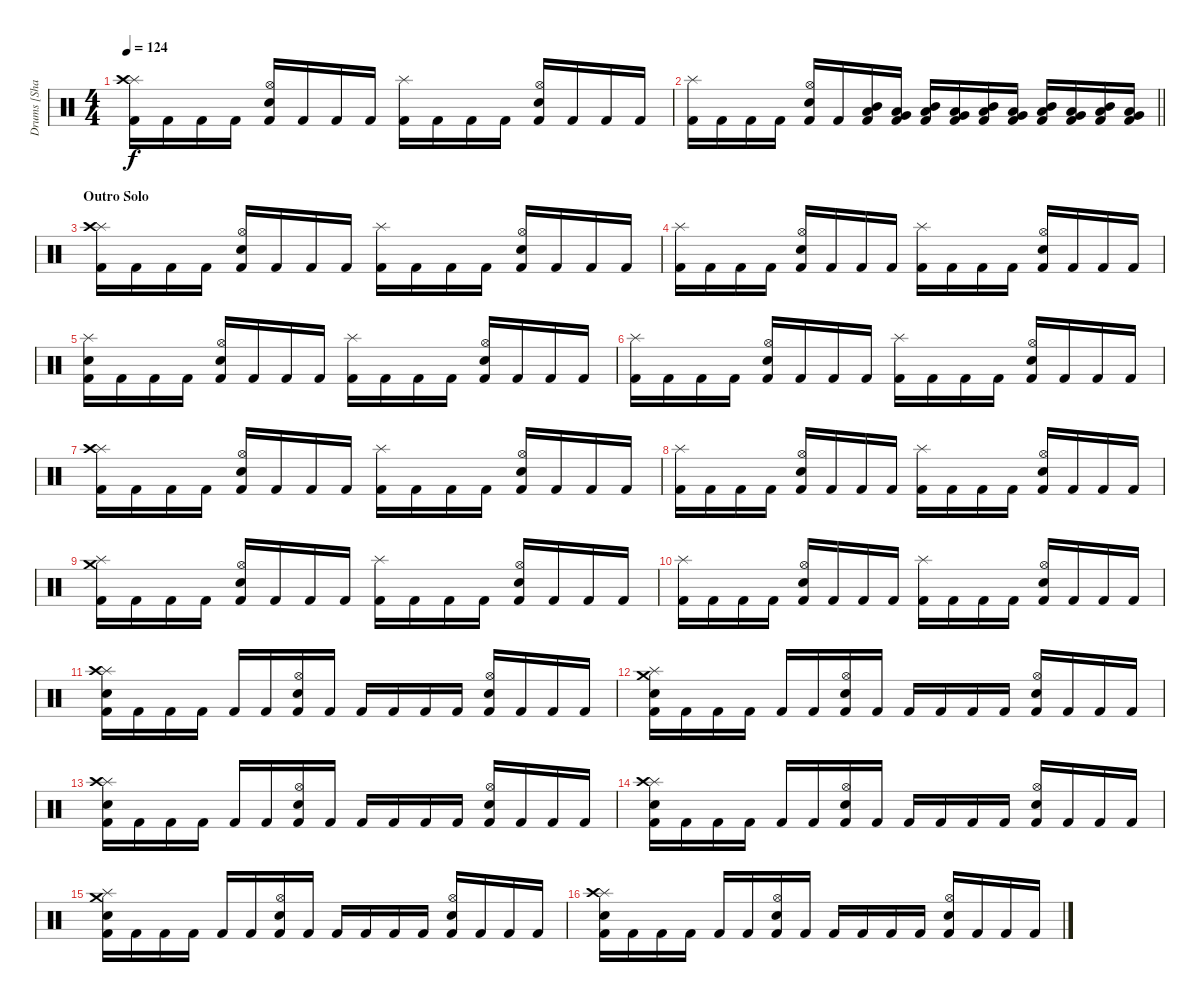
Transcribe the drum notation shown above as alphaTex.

\track ("Drums [Shawn Drover]" "Drums [Sha") {instrument percussion}
\staff {score}
\articulation defaults
\ts (4 4)
\tempo 124
\clef neutral
\ks c
("Splash (hit)" "Crash high (hit)" "Kick (hit) 2").16{dy f} "Kick (hit) 2".16 "Kick (hit) 2".16 "Kick (hit) 2".16 ("Hi-Hat (open)" "Electric Snare (hit)" "Kick (hit) 2").16 "Kick (hit) 2".16 "Kick (hit) 2".16 "Kick (hit) 2".16 ("Splash (hit)" "Kick (hit) 2").16 "Kick (hit) 2".16 "Kick (hit) 2".16 "Kick (hit) 2".16 ("Hi-Hat (open)" "Electric Snare (hit)" "Kick (hit) 2").16 "Kick (hit) 2".16 "Kick (hit) 2".16 "Kick (hit) 2".16 |
\barLineRight lightlight
("Splash (hit)" "Kick (hit) 2").16 "Kick (hit) 2".16 "Kick (hit) 2".16 "Kick (hit) 2".16 ("Hi-Hat (open)" "Electric Snare (hit)" "Kick (hit) 2").16 "Kick (hit) 2".16 ("Low Tom (hit)" "Mid Tom (hit)" "Kick (hit) 2").16 ("Very Low Tom (hit)" "Low Floor Tom (hit)" "Kick (hit) 2").16 ("Low Tom (hit)" "Mid Tom (hit)" "Kick (hit) 2").16 ("Very Low Tom (hit)" "Low Floor Tom (hit)" "Kick (hit) 2").16 ("Low Tom (hit)" "Mid Tom (hit)" "Kick (hit) 2").16 ("Very Low Tom (hit)" "Low Floor Tom (hit)" "Kick (hit) 2").16 ("Low Tom (hit)" "Mid Tom (hit)" "Kick (hit) 2").16 ("Very Low Tom (hit)" "Low Floor Tom (hit)" "Kick (hit) 2").16 ("Low Tom (hit)" "Mid Tom (hit)" "Kick (hit) 2").16 ("Very Low Tom (hit)" "Low Floor Tom (hit)" "Kick (hit) 2").16 |
\section ("" "Outro Solo")
("Splash (hit)" "Crash high (hit)" "Kick (hit) 2").16 "Kick (hit) 2".16 "Kick (hit) 2".16 "Kick (hit) 2".16 ("Hi-Hat (open)" "Electric Snare (hit)" "Kick (hit) 2").16 "Kick (hit) 2".16 "Kick (hit) 2".16 "Kick (hit) 2".16 ("Splash (hit)" "Kick (hit) 2").16 "Kick (hit) 2".16 "Kick (hit) 2".16 "Kick (hit) 2".16 ("Hi-Hat (open)" "Electric Snare (hit)" "Kick (hit) 2").16 "Kick (hit) 2".16 "Kick (hit) 2".16 "Kick (hit) 2".16 |
("Splash (hit)" "Kick (hit) 2").16 "Kick (hit) 2".16 "Kick (hit) 2".16 "Kick (hit) 2".16 ("Hi-Hat (open)" "Electric Snare (hit)" "Kick (hit) 2").16 "Kick (hit) 2".16 "Kick (hit) 2".16 "Kick (hit) 2".16 ("Splash (hit)" "Kick (hit) 2").16 "Kick (hit) 2".16 "Kick (hit) 2".16 "Kick (hit) 2".16 ("Hi-Hat (open)" "Electric Snare (hit)" "Kick (hit) 2").16 "Kick (hit) 2".16 "Kick (hit) 2".16 "Kick (hit) 2".16 |
("Splash (hit)" "Snare (hit)" "Kick (hit) 2").16 "Kick (hit) 2".16 "Kick (hit) 2".16 "Kick (hit) 2".16 ("Hi-Hat (open)" "Electric Snare (hit)" "Kick (hit) 2").16 "Kick (hit) 2".16 "Kick (hit) 2".16 "Kick (hit) 2".16 ("Splash (hit)" "Kick (hit) 2").16 "Kick (hit) 2".16 "Kick (hit) 2".16 "Kick (hit) 2".16 ("Hi-Hat (open)" "Electric Snare (hit)" "Kick (hit) 2").16 "Kick (hit) 2".16 "Kick (hit) 2".16 "Kick (hit) 2".16 |
("Splash (hit)" "Kick (hit) 2").16 "Kick (hit) 2".16 "Kick (hit) 2".16 "Kick (hit) 2".16 ("Hi-Hat (open)" "Electric Snare (hit)" "Kick (hit) 2").16 "Kick (hit) 2".16 "Kick (hit) 2".16 "Kick (hit) 2".16 ("Splash (hit)" "Kick (hit) 2").16 "Kick (hit) 2".16 "Kick (hit) 2".16 "Kick (hit) 2".16 ("Hi-Hat (open)" "Electric Snare (hit)" "Kick (hit) 2").16 "Kick (hit) 2".16 "Kick (hit) 2".16 "Kick (hit) 2".16 |
("Splash (hit)" "Crash high (hit)" "Kick (hit) 2").16 "Kick (hit) 2".16 "Kick (hit) 2".16 "Kick (hit) 2".16 ("Hi-Hat (open)" "Electric Snare (hit)" "Kick (hit) 2").16 "Kick (hit) 2".16 "Kick (hit) 2".16 "Kick (hit) 2".16 ("Splash (hit)" "Kick (hit) 2").16 "Kick (hit) 2".16 "Kick (hit) 2".16 "Kick (hit) 2".16 ("Hi-Hat (open)" "Electric Snare (hit)" "Kick (hit) 2").16 "Kick (hit) 2".16 "Kick (hit) 2".16 "Kick (hit) 2".16 |
("Splash (hit)" "Kick (hit) 2").16 "Kick (hit) 2".16 "Kick (hit) 2".16 "Kick (hit) 2".16 ("Hi-Hat (open)" "Electric Snare (hit)" "Kick (hit) 2").16 "Kick (hit) 2".16 "Kick (hit) 2".16 "Kick (hit) 2".16 ("Splash (hit)" "Kick (hit) 2").16 "Kick (hit) 2".16 "Kick (hit) 2".16 "Kick (hit) 2".16 ("Hi-Hat (open)" "Electric Snare (hit)" "Kick (hit) 2").16 "Kick (hit) 2".16 "Kick (hit) 2".16 "Kick (hit) 2".16 |
("Splash (hit)" "Crash medium (hit)" "Kick (hit) 2").16 "Kick (hit) 2".16 "Kick (hit) 2".16 "Kick (hit) 2".16 ("Hi-Hat (open)" "Electric Snare (hit)" "Kick (hit) 2").16 "Kick (hit) 2".16 "Kick (hit) 2".16 "Kick (hit) 2".16 ("Splash (hit)" "Kick (hit) 2").16 "Kick (hit) 2".16 "Kick (hit) 2".16 "Kick (hit) 2".16 ("Hi-Hat (open)" "Electric Snare (hit)" "Kick (hit) 2").16 "Kick (hit) 2".16 "Kick (hit) 2".16 "Kick (hit) 2".16 |
("Splash (hit)" "Kick (hit) 2").16 "Kick (hit) 2".16 "Kick (hit) 2".16 "Kick (hit) 2".16 ("Hi-Hat (open)" "Electric Snare (hit)" "Kick (hit) 2").16 "Kick (hit) 2".16 "Kick (hit) 2".16 "Kick (hit) 2".16 ("Splash (hit)" "Kick (hit) 2").16 "Kick (hit) 2".16 "Kick (hit) 2".16 "Kick (hit) 2".16 ("Hi-Hat (open)" "Electric Snare (hit)" "Kick (hit) 2").16 "Kick (hit) 2".16 "Kick (hit) 2".16 "Kick (hit) 2".16 |
("Splash (hit)" "Crash high (hit)" "Electric Snare (hit)" "Kick (hit) 2").16 "Kick (hit) 2".16 "Kick (hit) 2".16 "Kick (hit) 2".16 "Kick (hit) 2".16 "Kick (hit) 2".16 ("Hi-Hat (open)" "Electric Snare (hit)" "Kick (hit) 2").16 "Kick (hit) 2".16 "Kick (hit) 2".16 "Kick (hit) 2".16 "Kick (hit) 2".16 "Kick (hit) 2".16 ("Hi-Hat (open)" "Electric Snare (hit)" "Kick (hit) 2").16 "Kick (hit) 2".16 "Kick (hit) 2".16 "Kick (hit) 2".16 |
("Splash (hit)" "Crash medium (hit)" "Electric Snare (hit)" "Kick (hit) 2").16 "Kick (hit) 2".16 "Kick (hit) 2".16 "Kick (hit) 2".16 "Kick (hit) 2".16 "Kick (hit) 2".16 ("Hi-Hat (open)" "Electric Snare (hit)" "Kick (hit) 2").16 "Kick (hit) 2".16 "Kick (hit) 2".16 "Kick (hit) 2".16 "Kick (hit) 2".16 "Kick (hit) 2".16 ("Hi-Hat (open)" "Electric Snare (hit)" "Kick (hit) 2").16 "Kick (hit) 2".16 "Kick (hit) 2".16 "Kick (hit) 2".16 |
("Splash (hit)" "Crash high (hit)" "Electric Snare (hit)" "Kick (hit) 2").16 "Kick (hit) 2".16 "Kick (hit) 2".16 "Kick (hit) 2".16 "Kick (hit) 2".16 "Kick (hit) 2".16 ("Hi-Hat (open)" "Electric Snare (hit)" "Kick (hit) 2").16 "Kick (hit) 2".16 "Kick (hit) 2".16 "Kick (hit) 2".16 "Kick (hit) 2".16 "Kick (hit) 2".16 ("Hi-Hat (open)" "Electric Snare (hit)" "Kick (hit) 2").16 "Kick (hit) 2".16 "Kick (hit) 2".16 "Kick (hit) 2".16 |
("Splash (hit)" "Crash high (hit)" "Electric Snare (hit)" "Kick (hit) 2").16 "Kick (hit) 2".16 "Kick (hit) 2".16 "Kick (hit) 2".16 "Kick (hit) 2".16 "Kick (hit) 2".16 ("Hi-Hat (open)" "Electric Snare (hit)" "Kick (hit) 2").16 "Kick (hit) 2".16 "Kick (hit) 2".16 "Kick (hit) 2".16 "Kick (hit) 2".16 "Kick (hit) 2".16 ("Hi-Hat (open)" "Electric Snare (hit)" "Kick (hit) 2").16 "Kick (hit) 2".16 "Kick (hit) 2".16 "Kick (hit) 2".16 |
("Splash (hit)" "Crash medium (hit)" "Electric Snare (hit)" "Kick (hit) 2").16 "Kick (hit) 2".16 "Kick (hit) 2".16 "Kick (hit) 2".16 "Kick (hit) 2".16 "Kick (hit) 2".16 ("Hi-Hat (open)" "Electric Snare (hit)" "Kick (hit) 2").16 "Kick (hit) 2".16 "Kick (hit) 2".16 "Kick (hit) 2".16 "Kick (hit) 2".16 "Kick (hit) 2".16 ("Hi-Hat (open)" "Electric Snare (hit)" "Kick (hit) 2").16 "Kick (hit) 2".16 "Kick (hit) 2".16 "Kick (hit) 2".16 |
("Splash (hit)" "Crash high (hit)" "Electric Snare (hit)" "Kick (hit) 2").16 "Kick (hit) 2".16 "Kick (hit) 2".16 "Kick (hit) 2".16 "Kick (hit) 2".16 "Kick (hit) 2".16 ("Hi-Hat (open)" "Electric Snare (hit)" "Kick (hit) 2").16 "Kick (hit) 2".16 "Kick (hit) 2".16 "Kick (hit) 2".16 "Kick (hit) 2".16 "Kick (hit) 2".16 ("Hi-Hat (open)" "Electric Snare (hit)" "Kick (hit) 2").16 "Kick (hit) 2".16 "Kick (hit) 2".16 "Kick (hit) 2".16
